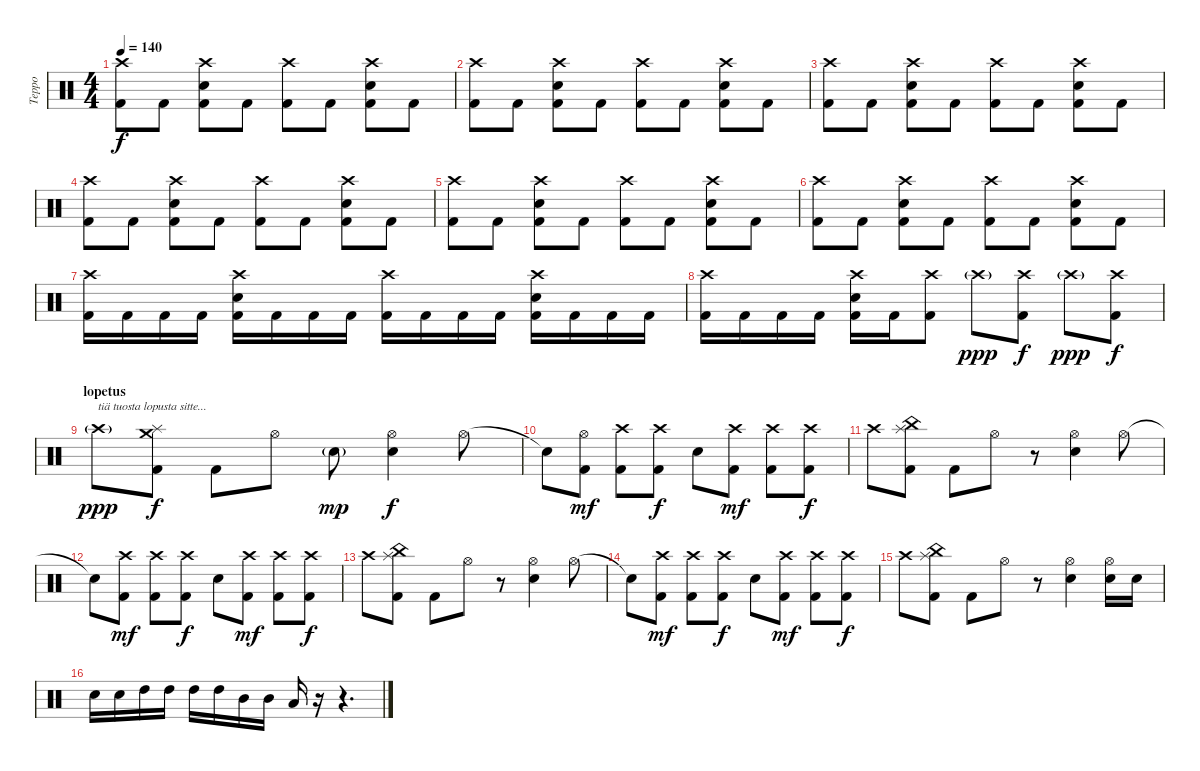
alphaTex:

\track ("Teppo" "Teppo") {instrument percussion}
\staff {score}
\articulation defaults
\ts (4 4)
\tempo 140
\clef neutral
\ks c
("Crash high (hit)" "Kick (hit) 2").8{dy f} "Kick (hit) 2".8 ("Crash high (hit)" "Electric Snare (hit)" "Kick (hit) 2").8 "Kick (hit) 2".8 ("Crash high (hit)" "Kick (hit) 2").8 "Kick (hit) 2".8 ("Crash high (hit)" "Electric Snare (hit)" "Kick (hit) 2").8 "Kick (hit) 2".8 |
("Crash high (hit)" "Kick (hit) 2").8 "Kick (hit) 2".8 ("Crash high (hit)" "Electric Snare (hit)" "Kick (hit) 2").8 "Kick (hit) 2".8 ("Crash high (hit)" "Kick (hit) 2").8 "Kick (hit) 2".8 ("Crash high (hit)" "Electric Snare (hit)" "Kick (hit) 2").8 "Kick (hit) 2".8 |
("Crash high (hit)" "Kick (hit) 2").8 "Kick (hit) 2".8 ("Crash high (hit)" "Electric Snare (hit)" "Kick (hit) 2").8 "Kick (hit) 2".8 ("Crash high (hit)" "Kick (hit) 2").8 "Kick (hit) 2".8 ("Crash high (hit)" "Electric Snare (hit)" "Kick (hit) 2").8 "Kick (hit) 2".8 |
("Crash high (hit)" "Kick (hit) 2").8 "Kick (hit) 2".8 ("Crash high (hit)" "Electric Snare (hit)" "Kick (hit) 2").8 "Kick (hit) 2".8 ("Crash high (hit)" "Kick (hit) 2").8 "Kick (hit) 2".8 ("Crash high (hit)" "Electric Snare (hit)" "Kick (hit) 2").8 "Kick (hit) 2".8 |
("Crash high (hit)" "Kick (hit) 2").8 "Kick (hit) 2".8 ("Crash high (hit)" "Electric Snare (hit)" "Kick (hit) 2").8 "Kick (hit) 2".8 ("Crash high (hit)" "Kick (hit) 2").8 "Kick (hit) 2".8 ("Crash high (hit)" "Electric Snare (hit)" "Kick (hit) 2").8 "Kick (hit) 2".8 |
("Crash high (hit)" "Kick (hit) 2").8 "Kick (hit) 2".8 ("Crash high (hit)" "Electric Snare (hit)" "Kick (hit) 2").8 "Kick (hit) 2".8 ("Crash high (hit)" "Kick (hit) 2").8 "Kick (hit) 2".8 ("Crash high (hit)" "Electric Snare (hit)" "Kick (hit) 2").8 "Kick (hit) 2".8 |
("Crash high (hit)" "Kick (hit) 2").16 "Kick (hit) 2".16 "Kick (hit) 2".16 "Kick (hit) 2".16 ("Crash high (hit)" "Electric Snare (hit)" "Kick (hit) 2").16 "Kick (hit) 2".16 "Kick (hit) 2".16 "Kick (hit) 2".16 ("Crash high (hit)" "Kick (hit) 2").16 "Kick (hit) 2".16 "Kick (hit) 2".16 "Kick (hit) 2".16 ("Crash high (hit)" "Electric Snare (hit)" "Kick (hit) 2").16 "Kick (hit) 2".16 "Kick (hit) 2".16 "Kick (hit) 2".16 |
("Crash high (hit)" "Kick (hit) 2").16 "Kick (hit) 2".16 "Kick (hit) 2".16 "Kick (hit) 2".16 ("Crash high (hit)" "Electric Snare (hit)" "Kick (hit) 2").16 "Kick (hit) 2".16 ("Crash high (hit)"{pm} "Kick (hit) 2").8 "Crash high (hit)"{g}.8{dy ppp} ("Crash high (hit)"{pm} "Kick (hit) 2").8{dy f} "Crash high (hit)"{g}.8{dy ppp} ("Crash high (hit)"{pm} "Kick (hit) 2").8{dy f} |
\section ("" "lopetus")
"Crash high (hit)"{g}.8{txt "tiä tuosta lopusta sitte..." dy ppp} ("Crash medium (hit)" "Splash (hit)" "Kick (hit) 2").8{dy f} "Kick (hit) 2".8 "Hi-Hat (open)".8 "Electric Snare (hit)"{g}.8{dy mp} ("Hi-Hat (open)" "Electric Snare (hit)").4{dy f} "Hi-Hat (open)".8 |
"Snare (hit)"{t}.8 ("Hi-Hat (open)" "Kick (hit) 2").8{dy mf} ("Crash high (hit)" "Kick (hit) 2").8 ("Crash high (hit)" "Kick (hit) 2").8{dy f} "Electric Snare (hit)".8 ("Crash high (hit)" "Kick (hit) 2").8{dy mf} ("Crash high (hit)" "Kick (hit) 2").8 ("Crash high (hit)" "Kick (hit) 2").8{dy f} |
"Crash high (hit)".8 ("China (hit)" "Splash (hit)" "Kick (hit) 2").8 "Kick (hit) 2".8 "Hi-Hat (open)".8 r.8 ("Hi-Hat (open)" "Electric Snare (hit)").4 "Hi-Hat (open)".8 |
"Snare (hit)"{t}.8 ("Crash high (hit)" "Kick (hit) 2").8{dy mf} ("Crash high (hit)" "Kick (hit) 2").8 ("Crash high (hit)" "Kick (hit) 2").8{dy f} "Electric Snare (hit)".8 ("Crash high (hit)" "Kick (hit) 2").8{dy mf} ("Crash high (hit)" "Kick (hit) 2").8 ("Crash high (hit)" "Kick (hit) 2").8{dy f} |
"Crash high (hit)".8 ("China (hit)" "Splash (hit)" "Kick (hit) 2").8 "Kick (hit) 2".8 "Hi-Hat (open)".8 r.8 ("Hi-Hat (open)" "Electric Snare (hit)").4 "Hi-Hat (open)".8 |
"Snare (hit)"{t}.8 ("Crash high (hit)" "Kick (hit) 2").8{dy mf} ("Crash high (hit)" "Kick (hit) 2").8 ("Crash high (hit)" "Kick (hit) 2").8{dy f} "Electric Snare (hit)".8 ("Crash high (hit)" "Kick (hit) 2").8{dy mf} ("Crash high (hit)" "Kick (hit) 2").8 ("Crash high (hit)" "Kick (hit) 2").8{dy f} |
"Crash high (hit)".8 ("China (hit)" "Splash (hit)" "Kick (hit) 2").8 "Kick (hit) 2".8 "Hi-Hat (open)".8 r.8 ("Hi-Hat (open)" "Electric Snare (hit)").4 ("Hi-Hat (open)" "Electric Snare (hit)").16 "Electric Snare (hit)".16 |
"Electric Snare (hit)".16 "Electric Snare (hit)".16 "High Tom (hit)".16 "High Tom (hit)".16 "High Tom (hit)".16 "High Tom (hit)".16 "Mid Tom (hit)".16 "Mid Tom (hit)".16 "Low Tom (hit)".16 r.16 r.4{d}
